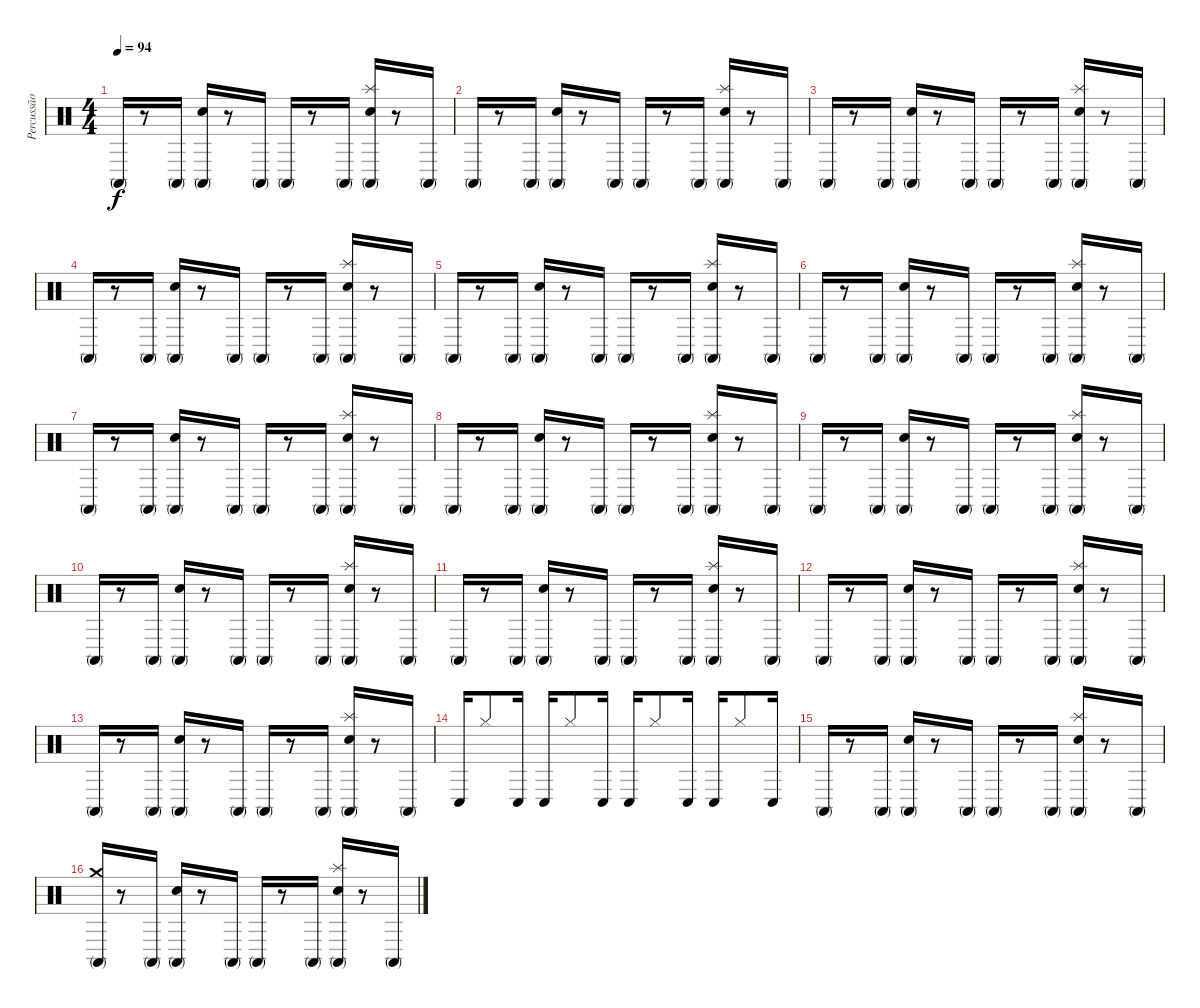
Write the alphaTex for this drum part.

\track ("Percussão" "Percussão") {instrument percussion}
\staff {score}
\articulation defaults
\ts (4 4)
\tempo 94
\clef neutral
\ks c "Conga high (mute)".16{dy f}
r.8 "Conga high (mute)".16 ("Conga high (mute)" "Hand Clap (hit)").16 r.8 "Conga high (mute)".16 "Conga high (mute)".16 r.8 "Conga high (mute)".16 ("Conga high (mute)" "Splash (hit)" "Hand Clap (hit)").16 r.8 "Conga high (mute)".16 |
"Conga high (mute)".16 r.8 "Conga high (mute)".16 ("Conga high (mute)" "Hand Clap (hit)").16 r.8 "Conga high (mute)".16 "Conga high (mute)".16 r.8 "Conga high (mute)".16 ("Conga high (mute)" "Splash (hit)" "Hand Clap (hit)").16 r.8 "Conga high (mute)".16 |
"Conga high (mute)".16 r.8 "Conga high (mute)".16 ("Conga high (mute)" "Hand Clap (hit)").16 r.8 "Conga high (mute)".16 "Conga high (mute)".16 r.8 "Conga high (mute)".16 ("Conga high (mute)" "Splash (hit)" "Hand Clap (hit)").16 r.8 "Conga high (mute)".16 |
"Conga high (mute)".16 r.8 "Conga high (mute)".16 ("Conga high (mute)" "Hand Clap (hit)").16 r.8 "Conga high (mute)".16 "Conga high (mute)".16 r.8 "Conga high (mute)".16 ("Conga high (mute)" "Splash (hit)" "Hand Clap (hit)").16 r.8 "Conga high (mute)".16 |
"Conga high (mute)".16 r.8 "Conga high (mute)".16 ("Conga high (mute)" "Hand Clap (hit)").16 r.8 "Conga high (mute)".16 "Conga high (mute)".16 r.8 "Conga high (mute)".16 ("Conga high (mute)" "Splash (hit)" "Hand Clap (hit)").16 r.8 "Conga high (mute)".16 |
"Conga high (mute)".16 r.8 "Conga high (mute)".16 ("Conga high (mute)" "Hand Clap (hit)").16 r.8 "Conga high (mute)".16 "Conga high (mute)".16 r.8 "Conga high (mute)".16 ("Conga high (mute)" "Splash (hit)" "Hand Clap (hit)").16 r.8 "Conga high (mute)".16 |
"Conga high (mute)".16 r.8 "Conga high (mute)".16 ("Conga high (mute)" "Hand Clap (hit)").16 r.8 "Conga high (mute)".16 "Conga high (mute)".16 r.8 "Conga high (mute)".16 ("Conga high (mute)" "Splash (hit)" "Hand Clap (hit)").16 r.8 "Conga high (mute)".16 |
"Conga high (mute)".16 r.8 "Conga high (mute)".16 ("Conga high (mute)" "Hand Clap (hit)").16 r.8 "Conga high (mute)".16 "Conga high (mute)".16 r.8 "Conga high (mute)".16 ("Conga high (mute)" "Splash (hit)" "Hand Clap (hit)").16 r.8 "Conga high (mute)".16 |
"Conga high (mute)".16 r.8 "Conga high (mute)".16 ("Conga high (mute)" "Hand Clap (hit)").16 r.8 "Conga high (mute)".16 "Conga high (mute)".16 r.8 "Conga high (mute)".16 ("Conga high (mute)" "Splash (hit)" "Hand Clap (hit)").16 r.8 "Conga high (mute)".16 |
"Conga high (mute)".16 r.8 "Conga high (mute)".16 ("Conga high (mute)" "Hand Clap (hit)").16 r.8 "Conga high (mute)".16 "Conga high (mute)".16 r.8 "Conga high (mute)".16 ("Conga high (mute)" "Splash (hit)" "Hand Clap (hit)").16 r.8 "Conga high (mute)".16 |
"Conga high (mute)".16 r.8 "Conga high (mute)".16 ("Conga high (mute)" "Hand Clap (hit)").16 r.8 "Conga high (mute)".16 "Conga high (mute)".16 r.8 "Conga high (mute)".16 ("Conga high (mute)" "Splash (hit)" "Hand Clap (hit)").16 r.8 "Conga high (mute)".16 |
"Conga high (mute)".16 r.8 "Conga high (mute)".16 ("Conga high (mute)" "Hand Clap (hit)").16 r.8 "Conga high (mute)".16 "Conga high (mute)".16 r.8 "Conga high (mute)".16 ("Conga high (mute)" "Splash (hit)" "Hand Clap (hit)").16 r.8 "Conga high (mute)".16 |
"Conga high (mute)".16 r.8 "Conga high (mute)".16 ("Conga high (mute)" "Hand Clap (hit)").16 r.8 "Conga high (mute)".16 "Conga high (mute)".16 r.8 "Conga high (mute)".16 ("Conga high (mute)" "Splash (hit)" "Hand Clap (hit)").16 r.8 "Conga high (mute)".16 |
"Conga low (hit)".16 "Hi-Hat (closed)".8 "Conga low (hit)".16 "Conga low (hit)".16 "Hi-Hat (closed)".8 "Conga low (hit)".16 "Conga low (hit)".16 "Hi-Hat (closed)".8 "Conga low (hit)".16 "Conga low (hit)".16 "Hi-Hat (closed)".8 "Conga low (hit)".16 |
"Conga high (mute)".16 r.8 "Conga high (mute)".16 ("Conga high (mute)" "Hand Clap (hit)").16 r.8 "Conga high (mute)".16 "Conga high (mute)".16 r.8 "Conga high (mute)".16 ("Conga high (mute)" "Splash (hit)" "Hand Clap (hit)").16 r.8 "Conga high (mute)".16 |
("Conga high (mute)" "Crash medium (hit)").16 r.8 "Conga high (mute)".16 ("Conga high (mute)" "Hand Clap (hit)").16 r.8 "Conga high (mute)".16 "Conga high (mute)".16 r.8 "Conga high (mute)".16 ("Conga high (mute)" "Splash (hit)" "Hand Clap (hit)").16 r.8 "Conga high (mute)".16
